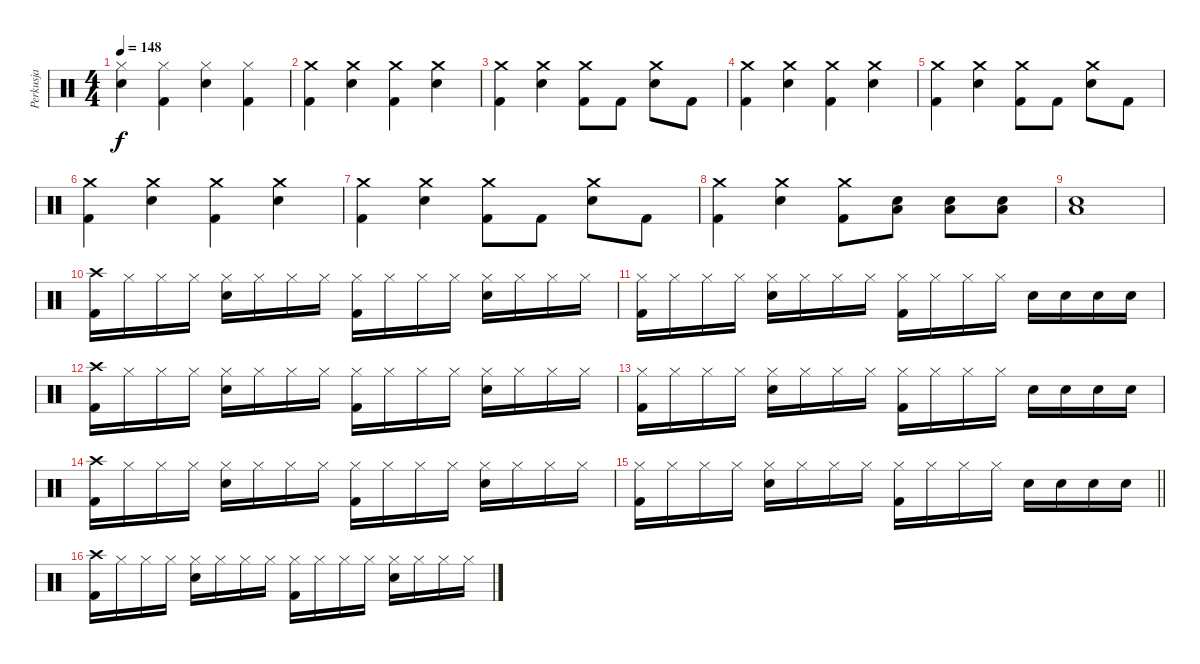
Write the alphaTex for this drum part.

\track ("Perkusja" "Perkusja") {instrument percussion}
\staff {score}
\articulation defaults
\ts (4 4)
\tempo 148
\clef neutral
\ks c
("Hi-Hat (closed)" "Snare (hit) 2").4{dy f} ("Hi-Hat (closed)" "Kick (hit) 2").4 ("Hi-Hat (closed)" "Snare (hit) 2").4 ("Hi-Hat (closed)" "Kick (hit) 2").4 |
("Crash medium (hit)" "Kick (hit) 2").4 ("Crash medium (hit)" "Snare (hit) 2").4 ("Crash medium (hit)" "Kick (hit) 2").4 ("Crash medium (hit)" "Snare (hit) 2").4 |
("Crash medium (hit)" "Kick (hit) 2").4 ("Crash medium (hit)" "Snare (hit) 2").4 ("Crash medium (hit)" "Kick (hit) 2").8 "Kick (hit) 2".8 ("Crash medium (hit)" "Snare (hit) 2").8 "Kick (hit) 2".8 |
("Crash medium (hit)" "Kick (hit) 2").4 ("Crash medium (hit)" "Snare (hit) 2").4 ("Crash medium (hit)" "Kick (hit) 2").4 ("Crash medium (hit)" "Snare (hit) 2").4 |
("Crash medium (hit)" "Kick (hit) 2").4 ("Crash medium (hit)" "Snare (hit) 2").4 ("Crash medium (hit)" "Kick (hit) 2").8 "Kick (hit) 2".8 ("Crash medium (hit)" "Snare (hit) 2").8 "Kick (hit) 2".8 |
("Crash medium (hit)" "Kick (hit) 2").4 ("Crash medium (hit)" "Snare (hit) 2").4 ("Crash medium (hit)" "Kick (hit) 2").4 ("Crash medium (hit)" "Snare (hit) 2").4 |
("Crash medium (hit)" "Kick (hit) 2").4 ("Crash medium (hit)" "Snare (hit) 2").4 ("Crash medium (hit)" "Kick (hit) 2").8 "Kick (hit) 2".8 ("Crash medium (hit)" "Snare (hit) 2").8 "Kick (hit) 2".8 |
("Crash medium (hit)" "Kick (hit) 2").4 ("Crash medium (hit)" "Snare (hit) 2").4 ("Crash medium (hit)" "Kick (hit) 2").8 ("Snare (hit) 2" "Low Floor Tom (hit)").8 ("Snare (hit) 2" "Low Floor Tom (hit)").8 ("Snare (hit) 2" "Low Floor Tom (hit)").8 |
("Snare (hit) 2" "Low Floor Tom (hit)").1 |
("Crash high (hit)" "Kick (hit) 2").16 "Hi-Hat (closed)".16 "Hi-Hat (closed)".16 "Hi-Hat (closed)".16 ("Hi-Hat (closed)" "Snare (hit) 2").16 "Hi-Hat (closed)".16 "Hi-Hat (closed)".16 "Hi-Hat (closed)".16 ("Hi-Hat (closed)" "Kick (hit) 2").16 "Hi-Hat (closed)".16 "Hi-Hat (closed)".16 "Hi-Hat (closed)".16 ("Hi-Hat (closed)" "Snare (hit) 2").16 "Hi-Hat (closed)".16 "Hi-Hat (closed)".16 "Hi-Hat (closed)".16 |
("Hi-Hat (closed)" "Kick (hit) 2").16 "Hi-Hat (closed)".16 "Hi-Hat (closed)".16 "Hi-Hat (closed)".16 ("Hi-Hat (closed)" "Snare (hit) 2").16 "Hi-Hat (closed)".16 "Hi-Hat (closed)".16 "Hi-Hat (closed)".16 ("Hi-Hat (closed)" "Kick (hit) 2").16 "Hi-Hat (closed)".16 "Hi-Hat (closed)".16 "Hi-Hat (closed)".16 "Snare (hit) 2".16 "Snare (hit) 2".16 "Snare (hit) 2".16 "Snare (hit) 2".16 |
("Crash high (hit)" "Kick (hit) 2").16 "Hi-Hat (closed)".16 "Hi-Hat (closed)".16 "Hi-Hat (closed)".16 ("Hi-Hat (closed)" "Snare (hit) 2").16 "Hi-Hat (closed)".16 "Hi-Hat (closed)".16 "Hi-Hat (closed)".16 ("Hi-Hat (closed)" "Kick (hit) 2").16 "Hi-Hat (closed)".16 "Hi-Hat (closed)".16 "Hi-Hat (closed)".16 ("Hi-Hat (closed)" "Snare (hit) 2").16 "Hi-Hat (closed)".16 "Hi-Hat (closed)".16 "Hi-Hat (closed)".16 |
("Hi-Hat (closed)" "Kick (hit) 2").16 "Hi-Hat (closed)".16 "Hi-Hat (closed)".16 "Hi-Hat (closed)".16 ("Hi-Hat (closed)" "Snare (hit) 2").16 "Hi-Hat (closed)".16 "Hi-Hat (closed)".16 "Hi-Hat (closed)".16 ("Hi-Hat (closed)" "Kick (hit) 2").16 "Hi-Hat (closed)".16 "Hi-Hat (closed)".16 "Hi-Hat (closed)".16 "Snare (hit) 2".16 "Snare (hit) 2".16 "Snare (hit) 2".16 "Snare (hit) 2".16 |
("Crash high (hit)" "Kick (hit) 2").16 "Hi-Hat (closed)".16 "Hi-Hat (closed)".16 "Hi-Hat (closed)".16 ("Hi-Hat (closed)" "Snare (hit) 2").16 "Hi-Hat (closed)".16 "Hi-Hat (closed)".16 "Hi-Hat (closed)".16 ("Hi-Hat (closed)" "Kick (hit) 2").16 "Hi-Hat (closed)".16 "Hi-Hat (closed)".16 "Hi-Hat (closed)".16 ("Hi-Hat (closed)" "Snare (hit) 2").16 "Hi-Hat (closed)".16 "Hi-Hat (closed)".16 "Hi-Hat (closed)".16 |
\barLineRight lightlight
("Hi-Hat (closed)" "Kick (hit) 2").16 "Hi-Hat (closed)".16 "Hi-Hat (closed)".16 "Hi-Hat (closed)".16 ("Hi-Hat (closed)" "Snare (hit) 2").16 "Hi-Hat (closed)".16 "Hi-Hat (closed)".16 "Hi-Hat (closed)".16 ("Hi-Hat (closed)" "Kick (hit) 2").16 "Hi-Hat (closed)".16 "Hi-Hat (closed)".16 "Hi-Hat (closed)".16 "Snare (hit) 2".16 "Snare (hit) 2".16 "Snare (hit) 2".16 "Snare (hit) 2".16 |
("Crash high (hit)" "Kick (hit) 2").16 "Hi-Hat (closed)".16 "Hi-Hat (closed)".16 "Hi-Hat (closed)".16 ("Hi-Hat (closed)" "Snare (hit) 2").16 "Hi-Hat (closed)".16 "Hi-Hat (closed)".16 "Hi-Hat (closed)".16 ("Hi-Hat (closed)" "Kick (hit) 2").16 "Hi-Hat (closed)".16 "Hi-Hat (closed)".16 "Hi-Hat (closed)".16 ("Hi-Hat (closed)" "Snare (hit) 2").16 "Hi-Hat (closed)".16 "Hi-Hat (closed)".16 "Hi-Hat (closed)".16
